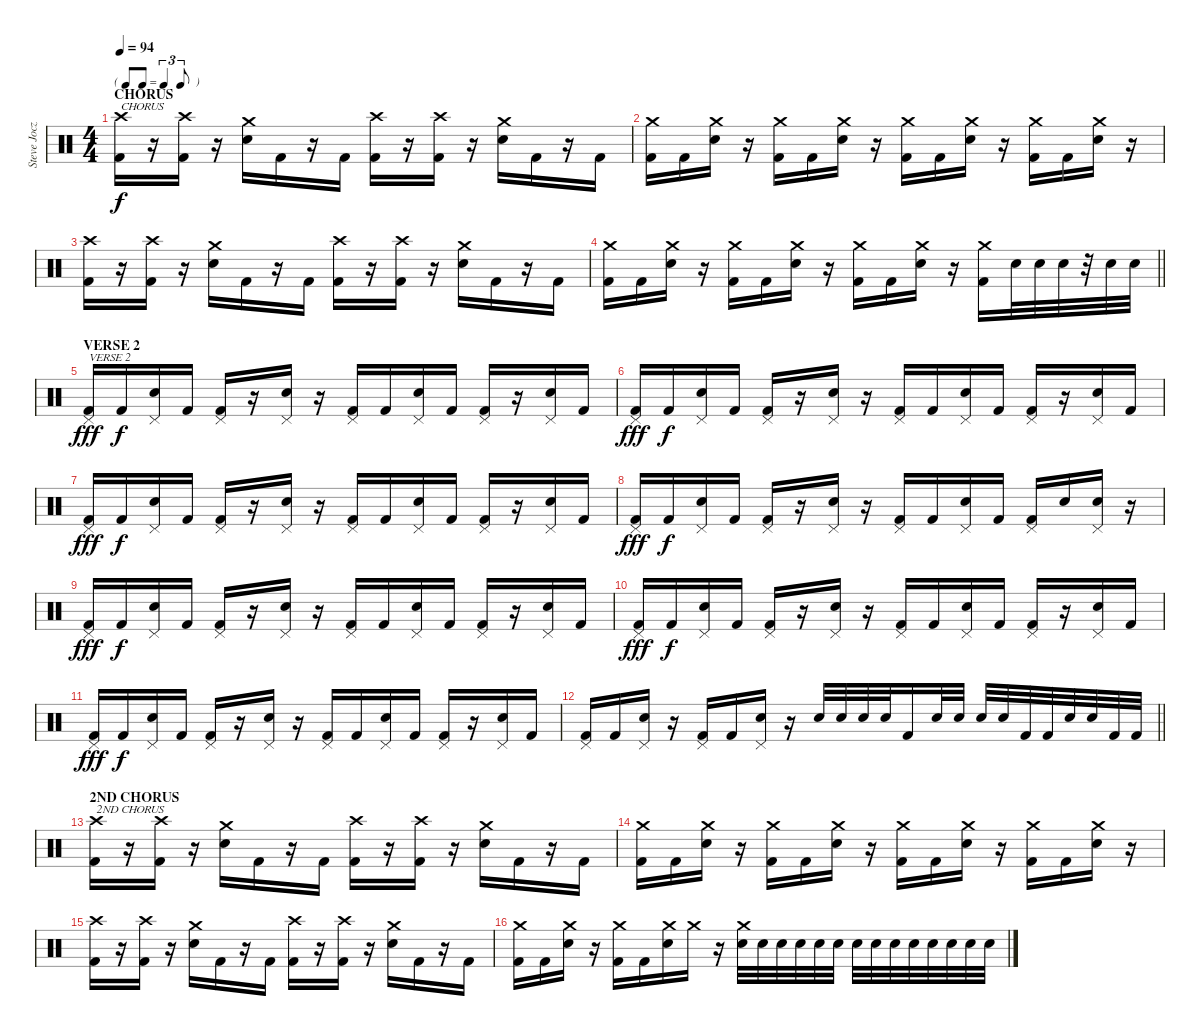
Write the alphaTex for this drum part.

\track ("Steve Jocz   \"Stevo32\"        (drums)" "Steve Jocz") {instrument percussion}
\staff {score}
\articulation defaults
\ts (4 4)
\tf triplet8th
\section ("" "CHORUS")
\tempo 94
\clef neutral
\ks c
("Crash high (hit)" "Kick (hit) 2").16{txt "CHORUS" dy f} r.16 ("Crash high (hit)" "Kick (hit) 2").16 r.16 ("Crash medium (hit)" "Electric Snare (hit)").16 "Kick (hit) 2".16 r.16 "Kick (hit) 2".16 ("Crash high (hit)" "Kick (hit) 2").16 r.16 ("Crash high (hit)" "Kick (hit) 2").16 r.16 ("Crash medium (hit)" "Electric Snare (hit)").16 "Kick (hit) 2".16 r.16 "Kick (hit) 2".16 |
("Crash medium (hit)" "Kick (hit) 2").16 "Kick (hit) 2".16 ("Crash medium (hit)" "Electric Snare (hit)").16 r.16 ("Crash medium (hit)" "Kick (hit) 2").16 "Kick (hit) 2".16 ("Crash medium (hit)" "Electric Snare (hit)").16 r.16 ("Crash medium (hit)" "Kick (hit) 2").16 "Kick (hit) 2".16 ("Crash medium (hit)" "Electric Snare (hit)").16 r.16 ("Crash medium (hit)" "Kick (hit) 2").16 "Kick (hit) 2".16 ("Crash medium (hit)" "Electric Snare (hit)").16 r.16 |
("Crash high (hit)" "Kick (hit) 2").16 r.16 ("Crash high (hit)" "Kick (hit) 2").16 r.16 ("Crash medium (hit)" "Electric Snare (hit)").16 "Kick (hit) 2".16 r.16 "Kick (hit) 2".16 ("Crash high (hit)" "Kick (hit) 2").16 r.16 ("Crash high (hit)" "Kick (hit) 2").16 r.16 ("Crash medium (hit)" "Electric Snare (hit)").16 "Kick (hit) 2".16 r.16 "Kick (hit) 2".16 |
\barLineRight lightlight
("Crash medium (hit)" "Kick (hit) 2").16 "Kick (hit) 2".16 ("Crash medium (hit)" "Electric Snare (hit)").16 r.16 ("Crash medium (hit)" "Kick (hit) 2").16 "Kick (hit) 2".16 ("Crash medium (hit)" "Electric Snare (hit)").16 r.16 ("Crash medium (hit)" "Kick (hit) 2").16 "Kick (hit) 2".16 ("Crash medium (hit)" "Electric Snare (hit)").16 r.16 ("Crash medium (hit)" "Kick (hit) 2").16 "Electric Snare (hit)".32 "Electric Snare (hit)".32 "Electric Snare (hit)".32 r.32 "Electric Snare (hit)".32 "Electric Snare (hit)".32 |
\section ("" "VERSE 2")
("Pedal Hi-Hat (hit)" "Kick (hit) 2").16{txt "VERSE 2" dy fff} "Kick (hit) 2".16{dy f} ("Pedal Hi-Hat (hit)" "Electric Snare (hit)").16 "Kick (hit) 2".16 ("Pedal Hi-Hat (hit)" "Kick (hit) 2").16 r.16 ("Pedal Hi-Hat (hit)" "Electric Snare (hit)").16 r.16 ("Pedal Hi-Hat (hit)" "Kick (hit) 2").16 "Kick (hit) 2".16 ("Pedal Hi-Hat (hit)" "Electric Snare (hit)").16 "Kick (hit) 2".16 ("Pedal Hi-Hat (hit)" "Kick (hit) 2").16 r.16 ("Pedal Hi-Hat (hit)" "Electric Snare (hit)").16 "Kick (hit) 2".16 |
("Pedal Hi-Hat (hit)" "Kick (hit) 2").16{dy fff} "Kick (hit) 2".16{dy f} ("Pedal Hi-Hat (hit)" "Electric Snare (hit)").16 "Kick (hit) 2".16 ("Pedal Hi-Hat (hit)" "Kick (hit) 2").16 r.16 ("Pedal Hi-Hat (hit)" "Electric Snare (hit)").16 r.16 ("Pedal Hi-Hat (hit)" "Kick (hit) 2").16 "Kick (hit) 2".16 ("Pedal Hi-Hat (hit)" "Electric Snare (hit)").16 "Kick (hit) 2".16 ("Pedal Hi-Hat (hit)" "Kick (hit) 2").16 r.16 ("Pedal Hi-Hat (hit)" "Electric Snare (hit)").16 "Kick (hit) 2".16 |
("Pedal Hi-Hat (hit)" "Kick (hit) 2").16{dy fff} "Kick (hit) 2".16{dy f} ("Pedal Hi-Hat (hit)" "Electric Snare (hit)").16 "Kick (hit) 2".16 ("Pedal Hi-Hat (hit)" "Kick (hit) 2").16 r.16 ("Pedal Hi-Hat (hit)" "Electric Snare (hit)").16 r.16 ("Pedal Hi-Hat (hit)" "Kick (hit) 2").16 "Kick (hit) 2".16 ("Pedal Hi-Hat (hit)" "Electric Snare (hit)").16 "Kick (hit) 2".16 ("Pedal Hi-Hat (hit)" "Kick (hit) 2").16 r.16 ("Pedal Hi-Hat (hit)" "Electric Snare (hit)").16 "Kick (hit) 2".16 |
("Pedal Hi-Hat (hit)" "Kick (hit) 2").16{dy fff} "Kick (hit) 2".16{dy f} ("Pedal Hi-Hat (hit)" "Electric Snare (hit)").16 "Kick (hit) 2".16 ("Pedal Hi-Hat (hit)" "Kick (hit) 2").16 r.16 ("Pedal Hi-Hat (hit)" "Electric Snare (hit)").16 r.16 ("Pedal Hi-Hat (hit)" "Kick (hit) 2").16 "Kick (hit) 2".16 ("Pedal Hi-Hat (hit)" "Electric Snare (hit)").16 "Kick (hit) 2".16 ("Pedal Hi-Hat (hit)" "Kick (hit) 2").16 "Electric Snare (hit)".16 ("Pedal Hi-Hat (hit)" "Electric Snare (hit)").16 r.16 |
("Pedal Hi-Hat (hit)" "Kick (hit) 2").16{dy fff} "Kick (hit) 2".16{dy f} ("Pedal Hi-Hat (hit)" "Electric Snare (hit)").16 "Kick (hit) 2".16 ("Pedal Hi-Hat (hit)" "Kick (hit) 2").16 r.16 ("Pedal Hi-Hat (hit)" "Electric Snare (hit)").16 r.16 ("Pedal Hi-Hat (hit)" "Kick (hit) 2").16 "Kick (hit) 2".16 ("Pedal Hi-Hat (hit)" "Electric Snare (hit)").16 "Kick (hit) 2".16 ("Pedal Hi-Hat (hit)" "Kick (hit) 2").16 r.16 ("Pedal Hi-Hat (hit)" "Electric Snare (hit)").16 "Kick (hit) 2".16 |
("Pedal Hi-Hat (hit)" "Kick (hit) 2").16{dy fff} "Kick (hit) 2".16{dy f} ("Pedal Hi-Hat (hit)" "Electric Snare (hit)").16 "Kick (hit) 2".16 ("Pedal Hi-Hat (hit)" "Kick (hit) 2").16 r.16 ("Pedal Hi-Hat (hit)" "Electric Snare (hit)").16 r.16 ("Pedal Hi-Hat (hit)" "Kick (hit) 2").16 "Kick (hit) 2".16 ("Pedal Hi-Hat (hit)" "Electric Snare (hit)").16 "Kick (hit) 2".16 ("Pedal Hi-Hat (hit)" "Kick (hit) 2").16 r.16 ("Pedal Hi-Hat (hit)" "Electric Snare (hit)").16 "Kick (hit) 2".16 |
("Pedal Hi-Hat (hit)" "Kick (hit) 2").16{dy fff} "Kick (hit) 2".16{dy f} ("Pedal Hi-Hat (hit)" "Electric Snare (hit)").16 "Kick (hit) 2".16 ("Pedal Hi-Hat (hit)" "Kick (hit) 2").16 r.16 ("Pedal Hi-Hat (hit)" "Electric Snare (hit)").16 r.16 ("Pedal Hi-Hat (hit)" "Kick (hit) 2").16 "Kick (hit) 2".16 ("Pedal Hi-Hat (hit)" "Electric Snare (hit)").16 "Kick (hit) 2".16 ("Pedal Hi-Hat (hit)" "Kick (hit) 2").16 r.16 ("Pedal Hi-Hat (hit)" "Electric Snare (hit)").16 "Kick (hit) 2".16 |
\barLineRight lightlight
("Pedal Hi-Hat (hit)" "Kick (hit) 2").16 "Kick (hit) 2".16 ("Pedal Hi-Hat (hit)" "Electric Snare (hit)").16 r.16 ("Pedal Hi-Hat (hit)" "Kick (hit) 2").16 "Kick (hit) 2".16 ("Pedal Hi-Hat (hit)" "Electric Snare (hit)").16 r.16 "Electric Snare (hit)".32 "Electric Snare (hit)".32 "Electric Snare (hit)".32 "Electric Snare (hit)".32 "Kick (hit) 2".16 "Electric Snare (hit)".32 "Electric Snare (hit)".32 "Electric Snare (hit)".32 "Electric Snare (hit)".32 "Kick (hit) 2".32 "Kick (hit) 2".32 "Electric Snare (hit)".32 "Electric Snare (hit)".32 "Kick (hit) 2".32 "Kick (hit) 2".32 |
\section ("" "2ND CHORUS")
("Crash high (hit)" "Kick (hit) 2").16{txt "2ND CHORUS"} r.16 ("Crash high (hit)" "Kick (hit) 2").16 r.16 ("Crash medium (hit)" "Electric Snare (hit)").16 "Kick (hit) 2".16 r.16 "Kick (hit) 2".16 ("Crash high (hit)" "Kick (hit) 2").16 r.16 ("Crash high (hit)" "Kick (hit) 2").16 r.16 ("Crash medium (hit)" "Electric Snare (hit)").16 "Kick (hit) 2".16 r.16 "Kick (hit) 2".16 |
("Crash medium (hit)" "Kick (hit) 2").16 "Kick (hit) 2".16 ("Crash medium (hit)" "Electric Snare (hit)").16 r.16 ("Crash medium (hit)" "Kick (hit) 2").16 "Kick (hit) 2".16 ("Crash medium (hit)" "Electric Snare (hit)").16 r.16 ("Crash medium (hit)" "Kick (hit) 2").16 "Kick (hit) 2".16 ("Crash medium (hit)" "Electric Snare (hit)").16 r.16 ("Crash medium (hit)" "Kick (hit) 2").16 "Kick (hit) 2".16 ("Crash medium (hit)" "Electric Snare (hit)").16 r.16 |
("Crash high (hit)" "Kick (hit) 2").16 r.16 ("Crash high (hit)" "Kick (hit) 2").16 r.16 ("Crash medium (hit)" "Electric Snare (hit)").16 "Kick (hit) 2".16 r.16 "Kick (hit) 2".16 ("Crash high (hit)" "Kick (hit) 2").16 r.16 ("Crash high (hit)" "Kick (hit) 2").16 r.16 ("Crash medium (hit)" "Electric Snare (hit)").16 "Kick (hit) 2".16 r.16 "Kick (hit) 2".16 |
("Crash medium (hit)" "Kick (hit) 2").16 "Kick (hit) 2".16 ("Crash medium (hit)" "Electric Snare (hit)").16 r.16 ("Crash medium (hit)" "Kick (hit) 2").16 "Kick (hit) 2".16 ("Crash medium (hit)" "Electric Snare (hit)").16 "Crash medium (hit)".16 r.16 ("Crash medium (hit)" "Electric Snare (hit)").32 "Electric Snare (hit)".32 "Electric Snare (hit)".32 "Electric Snare (hit)".32 "Electric Snare (hit)".32 "Electric Snare (hit)".32 "Electric Snare (hit)".32 "Electric Snare (hit)".32 "Electric Snare (hit)".32 "Electric Snare (hit)".32 "Electric Snare (hit)".32 "Electric Snare (hit)".32 "Electric Snare (hit)".32 "Electric Snare (hit)".32
